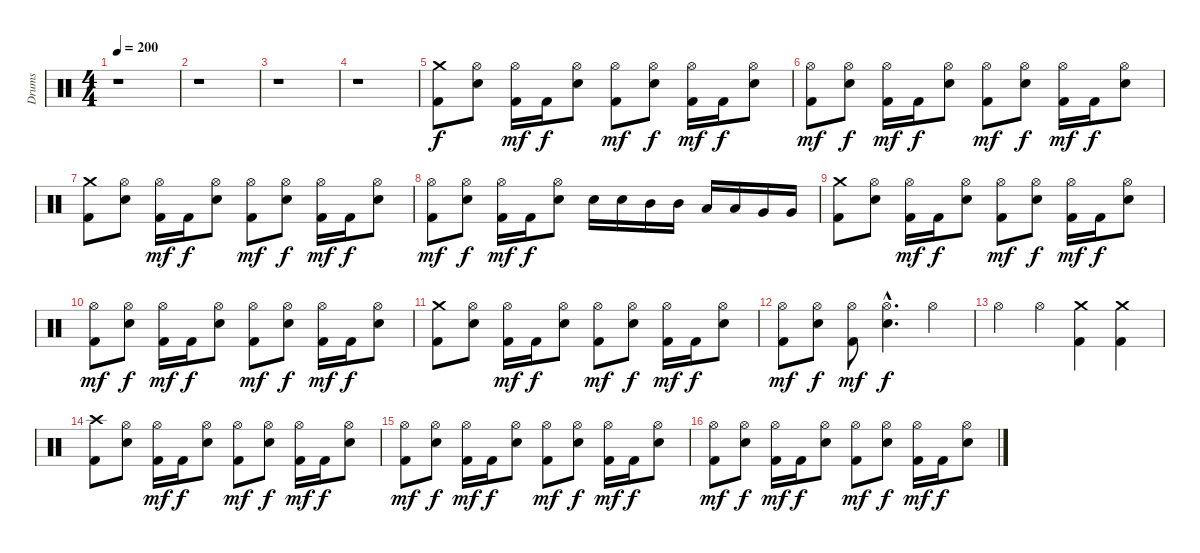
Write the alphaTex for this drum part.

\track ("Drums" "Drums") {instrument percussion}
\staff {score}
\articulation defaults
\ts (4 4)
\tempo 200
\clef neutral
\ks c
r.1{dy f} |
r.1 |
r.1 |
r.1 |
("Crash medium (hit)" "Kick (hit) 2").8 ("Hi-Hat (open)" "Electric Snare (hit)").8 ("Hi-Hat (open)" "Kick (hit) 2").16{dy mf} "Kick (hit) 2".16{dy f} ("Hi-Hat (open)" "Electric Snare (hit)").8 ("Hi-Hat (open)" "Kick (hit) 2").8{dy mf} ("Hi-Hat (open)" "Electric Snare (hit)").8{dy f} ("Hi-Hat (open)" "Kick (hit) 2").16{dy mf} "Kick (hit) 2".16{dy f} ("Hi-Hat (open)" "Electric Snare (hit)").8 |
("Hi-Hat (open)" "Kick (hit) 2").8{dy mf} ("Hi-Hat (open)" "Electric Snare (hit)").8{dy f} ("Hi-Hat (open)" "Kick (hit) 2").16{dy mf} "Kick (hit) 2".16{dy f} ("Hi-Hat (open)" "Electric Snare (hit)").8 ("Hi-Hat (open)" "Kick (hit) 2").8{dy mf} ("Hi-Hat (open)" "Electric Snare (hit)").8{dy f} ("Hi-Hat (open)" "Kick (hit) 2").16{dy mf} "Kick (hit) 2".16{dy f} ("Hi-Hat (open)" "Electric Snare (hit)").8 |
("Crash medium (hit)" "Kick (hit) 2").8 ("Hi-Hat (open)" "Electric Snare (hit)").8 ("Hi-Hat (open)" "Kick (hit) 2").16{dy mf} "Kick (hit) 2".16{dy f} ("Hi-Hat (open)" "Electric Snare (hit)").8 ("Hi-Hat (open)" "Kick (hit) 2").8{dy mf} ("Hi-Hat (open)" "Electric Snare (hit)").8{dy f} ("Hi-Hat (open)" "Kick (hit) 2").16{dy mf} "Kick (hit) 2".16{dy f} ("Hi-Hat (open)" "Electric Snare (hit)").8 |
("Hi-Hat (open)" "Kick (hit) 2").8{dy mf} ("Hi-Hat (open)" "Electric Snare (hit)").8{dy f} ("Hi-Hat (open)" "Kick (hit) 2").16{dy mf} "Kick (hit) 2".16{dy f} ("Hi-Hat (open)" "Electric Snare (hit)").8 "Electric Snare (hit)".16 "Electric Snare (hit)".16 "Mid Tom (hit)".16 "Mid Tom (hit)".16 "Low Tom (hit)".16 "Low Tom (hit)".16 "Very Low Tom (hit)".16 "Very Low Tom (hit)".16 |
("Crash medium (hit)" "Kick (hit) 2").8 ("Hi-Hat (open)" "Electric Snare (hit)").8 ("Hi-Hat (open)" "Kick (hit) 2").16{dy mf} "Kick (hit) 2".16{dy f} ("Hi-Hat (open)" "Electric Snare (hit)").8 ("Hi-Hat (open)" "Kick (hit) 2").8{dy mf} ("Hi-Hat (open)" "Electric Snare (hit)").8{dy f} ("Hi-Hat (open)" "Kick (hit) 2").16{dy mf} "Kick (hit) 2".16{dy f} ("Hi-Hat (open)" "Electric Snare (hit)").8 |
("Hi-Hat (open)" "Kick (hit) 2").8{dy mf} ("Hi-Hat (open)" "Electric Snare (hit)").8{dy f} ("Hi-Hat (open)" "Kick (hit) 2").16{dy mf} "Kick (hit) 2".16{dy f} ("Hi-Hat (open)" "Electric Snare (hit)").8 ("Hi-Hat (open)" "Kick (hit) 2").8{dy mf} ("Hi-Hat (open)" "Electric Snare (hit)").8{dy f} ("Hi-Hat (open)" "Kick (hit) 2").16{dy mf} "Kick (hit) 2".16{dy f} ("Hi-Hat (open)" "Electric Snare (hit)").8 |
("Crash medium (hit)" "Kick (hit) 2").8 ("Hi-Hat (open)" "Electric Snare (hit)").8 ("Hi-Hat (open)" "Kick (hit) 2").16{dy mf} "Kick (hit) 2".16{dy f} ("Hi-Hat (open)" "Electric Snare (hit)").8 ("Hi-Hat (open)" "Kick (hit) 2").8{dy mf} ("Hi-Hat (open)" "Electric Snare (hit)").8{dy f} ("Hi-Hat (open)" "Kick (hit) 2").16{dy mf} "Kick (hit) 2".16{dy f} ("Hi-Hat (open)" "Electric Snare (hit)").8 |
("Hi-Hat (open)" "Kick (hit) 2").8{dy mf} ("Hi-Hat (open)" "Electric Snare (hit)").8{dy f} ("Hi-Hat (open)" "Kick (hit) 2").8{dy mf} ("Hi-Hat (open)"{hac} "Electric Snare (hit)"{hac}).4{d dy f} "Hi-Hat (open)".4 |
"Hi-Hat (open)".4 "Hi-Hat (open)".4 ("Crash medium (hit)" "Kick (hit) 2").4 ("Crash medium (hit)" "Kick (hit) 2").4 |
("Crash high (hit)" "Kick (hit) 2").8 ("Hi-Hat (open)" "Electric Snare (hit)").8 ("Hi-Hat (open)" "Kick (hit) 2").16{dy mf} "Kick (hit) 2".16{dy f} ("Hi-Hat (open)" "Electric Snare (hit)").8 ("Hi-Hat (open)" "Kick (hit) 2").8{dy mf} ("Hi-Hat (open)" "Electric Snare (hit)").8{dy f} ("Hi-Hat (open)" "Kick (hit) 2").16{dy mf} "Kick (hit) 2".16{dy f} ("Hi-Hat (open)" "Electric Snare (hit)").8 |
("Hi-Hat (open)" "Kick (hit) 2").8{dy mf} ("Hi-Hat (open)" "Electric Snare (hit)").8{dy f} ("Hi-Hat (open)" "Kick (hit) 2").16{dy mf} "Kick (hit) 2".16{dy f} ("Hi-Hat (open)" "Electric Snare (hit)").8 ("Hi-Hat (open)" "Kick (hit) 2").8{dy mf} ("Hi-Hat (open)" "Electric Snare (hit)").8{dy f} ("Hi-Hat (open)" "Kick (hit) 2").16{dy mf} "Kick (hit) 2".16{dy f} ("Hi-Hat (open)" "Electric Snare (hit)").8 |
("Hi-Hat (open)" "Kick (hit) 2").8{dy mf} ("Hi-Hat (open)" "Electric Snare (hit)").8{dy f} ("Hi-Hat (open)" "Kick (hit) 2").16{dy mf} "Kick (hit) 2".16{dy f} ("Hi-Hat (open)" "Electric Snare (hit)").8 ("Hi-Hat (open)" "Kick (hit) 2").8{dy mf} ("Hi-Hat (open)" "Electric Snare (hit)").8{dy f} ("Hi-Hat (open)" "Kick (hit) 2").16{dy mf} "Kick (hit) 2".16{dy f} ("Hi-Hat (open)" "Electric Snare (hit)").8
